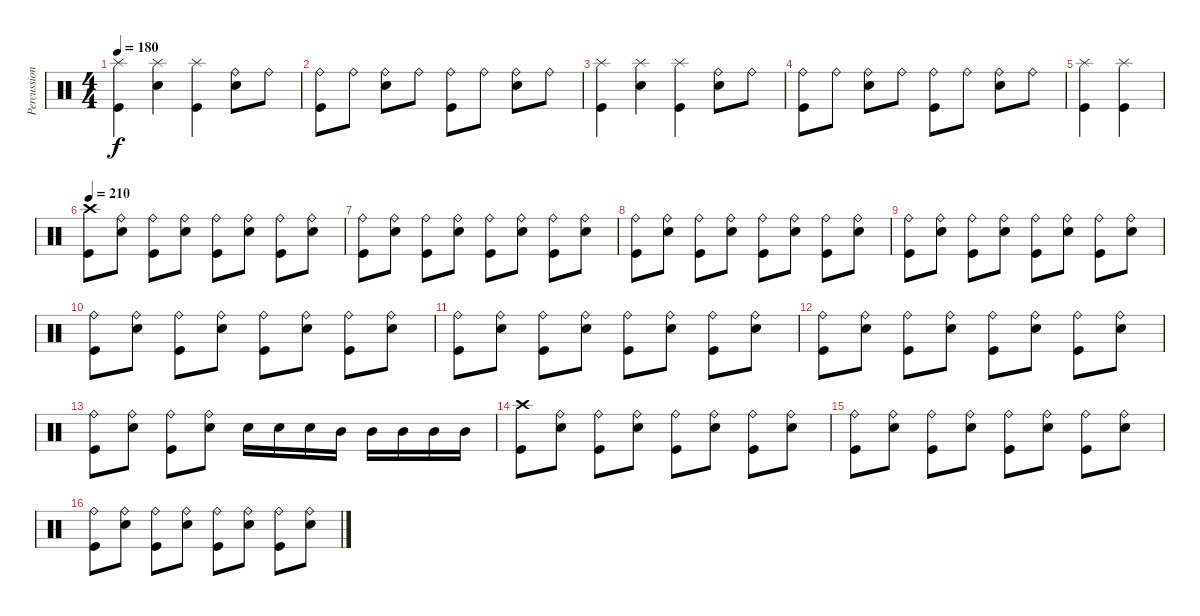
\track ("Percussions" "Percussion") {instrument percussion}
\staff {score}
\articulation defaults
\ts (4 4)
\tempo 180
\clef neutral
\ks c
("Kick (hit)" "Splash (hit)").4{dy f} ("Electric Snare (hit)" "Splash (hit)").4 ("Kick (hit)" "Splash (hit)").4 ("Electric Snare (hit)" "Ride (bell)").8 "Ride (bell)".8 |
("Kick (hit)" "Ride (bell)").8 "Ride (bell)".8 ("Electric Snare (hit)" "Ride (bell)").8 "Ride (bell)".8 ("Kick (hit)" "Ride (bell)").8 "Ride (bell)".8 ("Electric Snare (hit)" "Ride (bell)").8 "Ride (bell)".8 |
("Kick (hit)" "Splash (hit)").4 ("Electric Snare (hit)" "Splash (hit)").4 ("Kick (hit)" "Splash (hit)").4 ("Electric Snare (hit)" "Ride (bell)").8 "Ride (bell)".8 |
("Kick (hit)" "Ride (bell)").8 "Ride (bell)".8 ("Electric Snare (hit)" "Ride (bell)").8 "Ride (bell)".8 ("Kick (hit)" "Ride (bell)").8 "Ride (bell)".8 ("Electric Snare (hit)" "Ride (bell)").8 "Ride (bell)".8 |
("Kick (hit)" "Splash (hit)").4 ("Kick (hit)" "Splash (hit)").4 |
\tempo 210
("Kick (hit)" "Crash high (hit)").8 ("Electric Snare (hit)" "Ride (bell)").8 ("Kick (hit)" "Ride (bell)").8 ("Electric Snare (hit)" "Ride (bell)").8 ("Kick (hit)" "Ride (bell)").8 ("Electric Snare (hit)" "Ride (bell)").8 ("Kick (hit)" "Ride (bell)").8 ("Electric Snare (hit)" "Ride (bell)").8 |
("Kick (hit)" "Ride (bell)").8 ("Electric Snare (hit)" "Ride (bell)").8 ("Kick (hit)" "Ride (bell)").8 ("Electric Snare (hit)" "Ride (bell)").8 ("Kick (hit)" "Ride (bell)").8 ("Electric Snare (hit)" "Ride (bell)").8 ("Kick (hit)" "Ride (bell)").8 ("Electric Snare (hit)" "Ride (bell)").8 |
("Kick (hit)" "Ride (bell)").8 ("Electric Snare (hit)" "Ride (bell)").8 ("Kick (hit)" "Ride (bell)").8 ("Electric Snare (hit)" "Ride (bell)").8 ("Kick (hit)" "Ride (bell)").8 ("Electric Snare (hit)" "Ride (bell)").8 ("Kick (hit)" "Ride (bell)").8 ("Electric Snare (hit)" "Ride (bell)").8 |
("Kick (hit)" "Ride (bell)").8 ("Electric Snare (hit)" "Ride (bell)").8 ("Kick (hit)" "Ride (bell)").8 ("Electric Snare (hit)" "Ride (bell)").8 ("Kick (hit)" "Ride (bell)").8 ("Electric Snare (hit)" "Ride (bell)").8 ("Kick (hit)" "Ride (bell)").8 ("Electric Snare (hit)" "Ride (bell)").8 |
("Kick (hit)" "Ride (bell)").8 ("Electric Snare (hit)" "Ride (bell)").8 ("Kick (hit)" "Ride (bell)").8 ("Electric Snare (hit)" "Ride (bell)").8 ("Kick (hit)" "Ride (bell)").8 ("Electric Snare (hit)" "Ride (bell)").8 ("Kick (hit)" "Ride (bell)").8 ("Electric Snare (hit)" "Ride (bell)").8 |
("Kick (hit)" "Ride (bell)").8 ("Electric Snare (hit)" "Ride (bell)").8 ("Kick (hit)" "Ride (bell)").8 ("Electric Snare (hit)" "Ride (bell)").8 ("Kick (hit)" "Ride (bell)").8 ("Electric Snare (hit)" "Ride (bell)").8 ("Kick (hit)" "Ride (bell)").8 ("Electric Snare (hit)" "Ride (bell)").8 |
("Kick (hit)" "Ride (bell)").8 ("Electric Snare (hit)" "Ride (bell)").8 ("Kick (hit)" "Ride (bell)").8 ("Electric Snare (hit)" "Ride (bell)").8 ("Kick (hit)" "Ride (bell)").8 ("Electric Snare (hit)" "Ride (bell)").8 ("Kick (hit)" "Ride (bell)").8 ("Electric Snare (hit)" "Ride (bell)").8 |
("Kick (hit)" "Ride (bell)").8 ("Electric Snare (hit)" "Ride (bell)").8 ("Kick (hit)" "Ride (bell)").8 ("Electric Snare (hit)" "Ride (bell)").8 "Electric Snare (hit)".16 "Electric Snare (hit)".16 "Electric Snare (hit)".16 "Mid Tom (hit)".16 "Mid Tom (hit)".16 "Mid Tom (hit)".16 "Mid Tom (hit)".16 "Mid Tom (hit)".16 |
("Kick (hit)" "Crash high (hit)").8 ("Electric Snare (hit)" "Ride (bell)").8 ("Kick (hit)" "Ride (bell)").8 ("Electric Snare (hit)" "Ride (bell)").8 ("Kick (hit)" "Ride (bell)").8 ("Electric Snare (hit)" "Ride (bell)").8 ("Kick (hit)" "Ride (bell)").8 ("Electric Snare (hit)" "Ride (bell)").8 |
("Kick (hit)" "Ride (bell)").8 ("Electric Snare (hit)" "Ride (bell)").8 ("Kick (hit)" "Ride (bell)").8 ("Electric Snare (hit)" "Ride (bell)").8 ("Kick (hit)" "Ride (bell)").8 ("Electric Snare (hit)" "Ride (bell)").8 ("Kick (hit)" "Ride (bell)").8 ("Electric Snare (hit)" "Ride (bell)").8 |
("Kick (hit)" "Ride (bell)").8 ("Electric Snare (hit)" "Ride (bell)").8 ("Kick (hit)" "Ride (bell)").8 ("Electric Snare (hit)" "Ride (bell)").8 ("Kick (hit)" "Ride (bell)").8 ("Electric Snare (hit)" "Ride (bell)").8 ("Kick (hit)" "Ride (bell)").8 ("Electric Snare (hit)" "Ride (bell)").8
